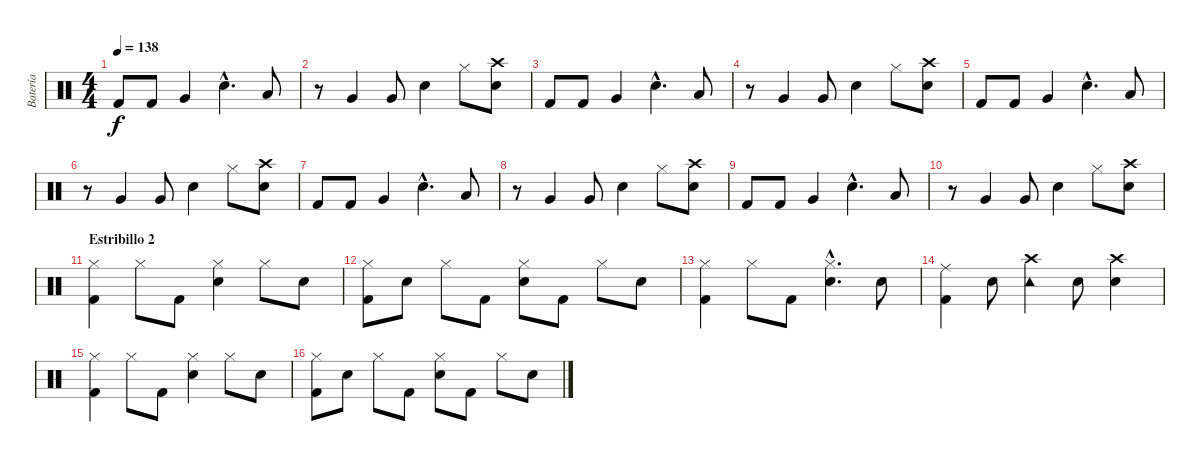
\track ("Batería" "Batería") {instrument percussion}
\staff {score}
\articulation defaults
\ts (4 4)
\tempo 138
\clef neutral
\ks c "Kick (hit) 2".8{dy f} "Kick (hit) 2".8 "Very Low Tom (hit)".4 "Electric Snare (hit)"{hac}.4{d} "Low Tom (hit)".8
|
r.8 "Very Low Tom (hit)".4 "Very Low Tom (hit)".8 "Electric Snare (hit)".4 "Hi-Hat (closed)".8 ("Electric Snare (hit)" "Crash high (hit)").8 |
"Kick (hit) 2".8 "Kick (hit) 2".8 "Very Low Tom (hit)".4 "Electric Snare (hit)"{hac}.4{d} "Low Tom (hit)".8 |
r.8 "Very Low Tom (hit)".4 "Very Low Tom (hit)".8 "Electric Snare (hit)".4 "Hi-Hat (closed)".8 ("Electric Snare (hit)" "Crash high (hit)").8 |
"Kick (hit) 2".8 "Kick (hit) 2".8 "Very Low Tom (hit)".4 "Electric Snare (hit)"{hac}.4{d} "Low Tom (hit)".8 |
r.8 "Very Low Tom (hit)".4 "Very Low Tom (hit)".8 "Electric Snare (hit)".4 "Hi-Hat (closed)".8 ("Electric Snare (hit)" "Crash high (hit)").8 |
"Kick (hit) 2".8 "Kick (hit) 2".8 "Very Low Tom (hit)".4 "Electric Snare (hit)"{hac}.4{d} "Low Tom (hit)".8 |
r.8 "Very Low Tom (hit)".4 "Very Low Tom (hit)".8 "Electric Snare (hit)".4 "Hi-Hat (closed)".8 ("Electric Snare (hit)" "Crash high (hit)").8 |
"Kick (hit) 2".8 "Kick (hit) 2".8 "Very Low Tom (hit)".4 "Electric Snare (hit)"{hac}.4{d} "Low Tom (hit)".8 |
r.8 "Very Low Tom (hit)".4 "Very Low Tom (hit)".8 "Electric Snare (hit)".4 "Hi-Hat (closed)".8 ("Electric Snare (hit)" "Crash high (hit)").8 |
\section ("" "Estribillo 2")
("Kick (hit) 2" "Hi-Hat (closed)").4 "Hi-Hat (closed)".8 "Kick (hit) 2".8 ("Electric Snare (hit)" "Hi-Hat (closed)").4 "Hi-Hat (closed)".8 "Electric Snare (hit)".8 |
("Kick (hit) 2" "Hi-Hat (closed)").8 "Electric Snare (hit)".8 "Hi-Hat (closed)".8 "Kick (hit) 2".8 ("Electric Snare (hit)" "Hi-Hat (closed)").8 "Kick (hit) 2".8 "Hi-Hat (closed)".8 "Electric Snare (hit)".8 |
("Kick (hit) 2" "Hi-Hat (closed)").4 "Hi-Hat (closed)".8 "Kick (hit) 2".8 ("Electric Snare (hit)"{hac} "Hi-Hat (closed)"{hac}).4{d} "Electric Snare (hit)".8 |
("Kick (hit) 2" "Ride (middle)").4 "Electric Snare (hit)".8 ("Crash high (hit)" "Tambourine (hit)").4 "Electric Snare (hit)".8 ("Electric Snare (hit)" "Crash high (hit)").4 |
("Kick (hit) 2" "Hi-Hat (closed)").4 "Hi-Hat (closed)".8 "Kick (hit) 2".8 ("Electric Snare (hit)" "Hi-Hat (closed)").4 "Hi-Hat (closed)".8 "Electric Snare (hit)".8 |
("Kick (hit) 2" "Hi-Hat (closed)").8 "Electric Snare (hit)".8 "Hi-Hat (closed)".8 "Kick (hit) 2".8 ("Electric Snare (hit)" "Hi-Hat (closed)").8 "Kick (hit) 2".8 "Hi-Hat (closed)".8 "Electric Snare (hit)".8
